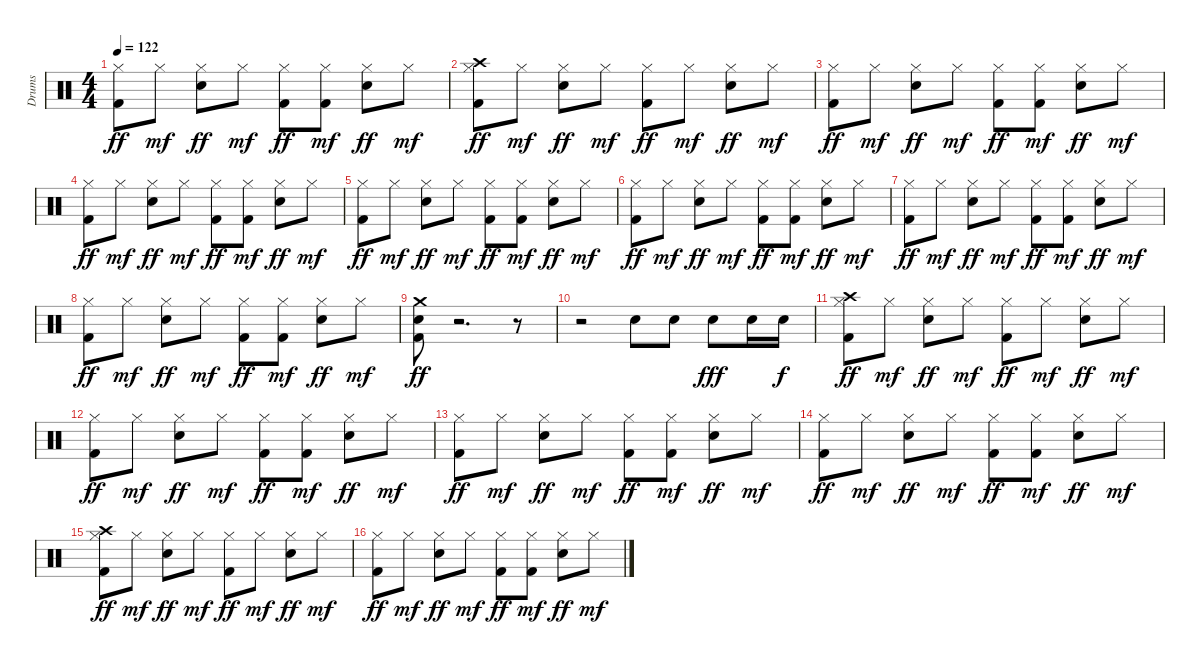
\track ("Drums" "Drums") {instrument percussion}
\staff {score}
\articulation defaults
\ts (4 4)
\tempo 122
\clef neutral
\ks c
("Kick (hit) 2" "Hi-Hat (closed)").8{dy ff} "Hi-Hat (closed)".8{dy mf} ("Snare (hit) 2" "Hi-Hat (closed)").8{dy ff} "Hi-Hat (closed)".8{dy mf} ("Kick (hit) 2" "Hi-Hat (closed)").8{dy ff} ("Kick (hit) 2" "Hi-Hat (closed)").8{dy mf} ("Snare (hit) 2" "Hi-Hat (closed)").8{dy ff} "Hi-Hat (closed)".8{dy mf} |
("Kick (hit) 2" "Hi-Hat (closed)" "Crash high (hit)").8{dy ff} "Hi-Hat (closed)".8{dy mf} ("Snare (hit) 2" "Hi-Hat (closed)").8{dy ff} "Hi-Hat (closed)".8{dy mf} ("Kick (hit) 2" "Hi-Hat (closed)").8{dy ff} "Hi-Hat (closed)".8{dy mf} ("Snare (hit) 2" "Hi-Hat (closed)").8{dy ff} "Hi-Hat (closed)".8{dy mf} |
("Kick (hit) 2" "Hi-Hat (closed)").8{dy ff} "Hi-Hat (closed)".8{dy mf} ("Snare (hit) 2" "Hi-Hat (closed)").8{dy ff} "Hi-Hat (closed)".8{dy mf} ("Kick (hit) 2" "Hi-Hat (closed)").8{dy ff} ("Kick (hit) 2" "Hi-Hat (closed)").8{dy mf} ("Snare (hit) 2" "Hi-Hat (closed)").8{dy ff} "Hi-Hat (closed)".8{dy mf} |
("Kick (hit) 2" "Hi-Hat (closed)").8{dy ff} "Hi-Hat (closed)".8{dy mf} ("Snare (hit) 2" "Hi-Hat (closed)").8{dy ff} "Hi-Hat (closed)".8{dy mf} ("Kick (hit) 2" "Hi-Hat (closed)").8{dy ff} ("Kick (hit) 2" "Hi-Hat (closed)").8{dy mf} ("Snare (hit) 2" "Hi-Hat (closed)").8{dy ff} "Hi-Hat (closed)".8{dy mf} |
("Kick (hit) 2" "Hi-Hat (closed)").8{dy ff} "Hi-Hat (closed)".8{dy mf} ("Snare (hit) 2" "Hi-Hat (closed)").8{dy ff} "Hi-Hat (closed)".8{dy mf} ("Kick (hit) 2" "Hi-Hat (closed)").8{dy ff} ("Kick (hit) 2" "Hi-Hat (closed)").8{dy mf} ("Snare (hit) 2" "Hi-Hat (closed)").8{dy ff} "Hi-Hat (closed)".8{dy mf} |
("Kick (hit) 2" "Hi-Hat (closed)").8{dy ff} "Hi-Hat (closed)".8{dy mf} ("Snare (hit) 2" "Hi-Hat (closed)").8{dy ff} "Hi-Hat (closed)".8{dy mf} ("Kick (hit) 2" "Hi-Hat (closed)").8{dy ff} ("Kick (hit) 2" "Hi-Hat (closed)").8{dy mf} ("Snare (hit) 2" "Hi-Hat (closed)").8{dy ff} "Hi-Hat (closed)".8{dy mf} |
("Kick (hit) 2" "Hi-Hat (closed)").8{dy ff} "Hi-Hat (closed)".8{dy mf} ("Snare (hit) 2" "Hi-Hat (closed)").8{dy ff} "Hi-Hat (closed)".8{dy mf} ("Kick (hit) 2" "Hi-Hat (closed)").8{dy ff} ("Kick (hit) 2" "Hi-Hat (closed)").8{dy mf} ("Snare (hit) 2" "Hi-Hat (closed)").8{dy ff} "Hi-Hat (closed)".8{dy mf} |
("Kick (hit) 2" "Hi-Hat (closed)").8{dy ff} "Hi-Hat (closed)".8{dy mf} ("Snare (hit) 2" "Hi-Hat (closed)").8{dy ff} "Hi-Hat (closed)".8{dy mf} ("Kick (hit) 2" "Hi-Hat (closed)").8{dy ff} ("Kick (hit) 2" "Hi-Hat (closed)").8{dy mf} ("Snare (hit) 2" "Hi-Hat (closed)").8{dy ff} "Hi-Hat (closed)".8{dy mf} |
("Kick (hit) 2" "Snare (hit) 2" "Crash medium (hit)").8{dy ff} r.2{d} r.8 |
r.2 "Snare (hit) 2".8 "Snare (hit) 2".8 "Snare (hit) 2".8{dy fff} "Snare (hit) 2".16 "Snare (hit) 2".16{dy f} |
("Kick (hit) 2" "Hi-Hat (closed)" "Crash high (hit)").8{dy ff} "Hi-Hat (closed)".8{dy mf} ("Snare (hit) 2" "Hi-Hat (closed)").8{dy ff} "Hi-Hat (closed)".8{dy mf} ("Kick (hit) 2" "Hi-Hat (closed)").8{dy ff} "Hi-Hat (closed)".8{dy mf} ("Snare (hit) 2" "Hi-Hat (closed)").8{dy ff} "Hi-Hat (closed)".8{dy mf} |
("Kick (hit) 2" "Hi-Hat (closed)").8{dy ff} "Hi-Hat (closed)".8{dy mf} ("Snare (hit) 2" "Hi-Hat (closed)").8{dy ff} "Hi-Hat (closed)".8{dy mf} ("Kick (hit) 2" "Hi-Hat (closed)").8{dy ff} ("Kick (hit) 2" "Hi-Hat (closed)").8{dy mf} ("Snare (hit) 2" "Hi-Hat (closed)").8{dy ff} "Hi-Hat (closed)".8{dy mf} |
("Kick (hit) 2" "Hi-Hat (closed)").8{dy ff} "Hi-Hat (closed)".8{dy mf} ("Snare (hit) 2" "Hi-Hat (closed)").8{dy ff} "Hi-Hat (closed)".8{dy mf} ("Kick (hit) 2" "Hi-Hat (closed)").8{dy ff} ("Kick (hit) 2" "Hi-Hat (closed)").8{dy mf} ("Snare (hit) 2" "Hi-Hat (closed)").8{dy ff} "Hi-Hat (closed)".8{dy mf} |
("Kick (hit) 2" "Hi-Hat (closed)").8{dy ff} "Hi-Hat (closed)".8{dy mf} ("Snare (hit) 2" "Hi-Hat (closed)").8{dy ff} "Hi-Hat (closed)".8{dy mf} ("Kick (hit) 2" "Hi-Hat (closed)").8{dy ff} ("Kick (hit) 2" "Hi-Hat (closed)").8{dy mf} ("Snare (hit) 2" "Hi-Hat (closed)").8{dy ff} "Hi-Hat (closed)".8{dy mf} |
("Kick (hit) 2" "Hi-Hat (closed)" "Crash high (hit)").8{dy ff} "Hi-Hat (closed)".8{dy mf} ("Snare (hit) 2" "Hi-Hat (closed)").8{dy ff} "Hi-Hat (closed)".8{dy mf} ("Kick (hit) 2" "Hi-Hat (closed)").8{dy ff} "Hi-Hat (closed)".8{dy mf} ("Snare (hit) 2" "Hi-Hat (closed)").8{dy ff} "Hi-Hat (closed)".8{dy mf} |
("Kick (hit) 2" "Hi-Hat (closed)").8{dy ff} "Hi-Hat (closed)".8{dy mf} ("Snare (hit) 2" "Hi-Hat (closed)").8{dy ff} "Hi-Hat (closed)".8{dy mf} ("Kick (hit) 2" "Hi-Hat (closed)").8{dy ff} ("Kick (hit) 2" "Hi-Hat (closed)").8{dy mf} ("Snare (hit) 2" "Hi-Hat (closed)").8{dy ff} "Hi-Hat (closed)".8{dy mf}
